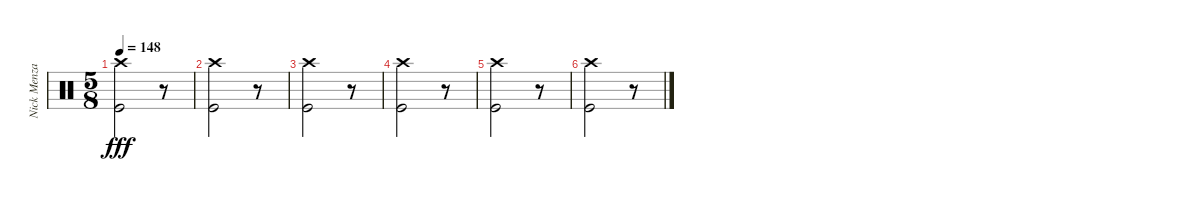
\track ("Nick Menza" "Nick Menza") {instrument percussion}
\staff {score}
\articulation defaults
\ts (5 8)
\tempo 148
\clef neutral
\ks c
("Kick (hit)" "Crash high (hit)").2{dy fff} r.8 |
("Kick (hit)" "Crash high (hit)").2 r.8 |
("Kick (hit)" "Crash high (hit)").2 r.8 |
("Kick (hit)" "Crash high (hit)").2 r.8 |
("Kick (hit)" "Crash high (hit)").2 r.8 |
("Kick (hit)" "Crash high (hit)").2 r.8
